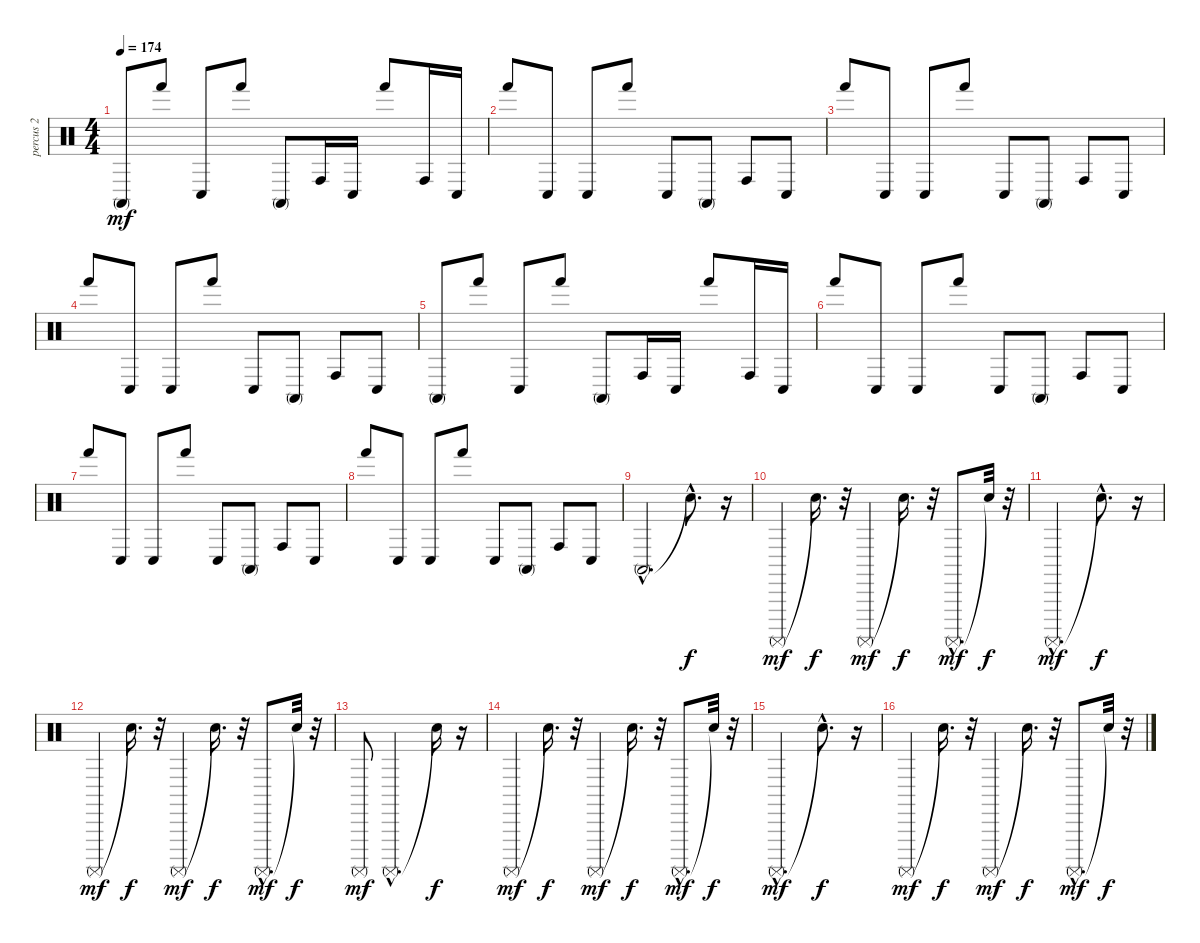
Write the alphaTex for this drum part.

\track ("percus 2" "percus 2") {instrument percussion}
\staff {score}
\articulation defaults
\ts (4 4)
\tempo 174
\clef neutral
\ks c "Conga high (mute)".8{dy mf} "Hand (hit)".8 "Conga low (hit)".8 "Hand (hit)".8 "Conga high (mute)".8 "Conga high (hit)".16 "Conga low (hit)".16 "Hand (hit)".8 "Conga high (hit)".16 "Conga low (hit)".16
|
"Hand (hit)".8 "Conga low (hit)".8 "Conga low (hit)".8 "Hand (hit)".8 "Conga low (hit)".8 "Conga high (mute)".8 "Conga high (hit)".8 "Conga low (hit)".8 |
"Hand (hit)".8 "Conga low (hit)".8 "Conga low (hit)".8 "Hand (hit)".8 "Conga low (hit)".8 "Conga high (mute)".8 "Conga high (hit)".8 "Conga low (hit)".8 |
"Hand (hit)".8 "Conga low (hit)".8 "Conga low (hit)".8 "Hand (hit)".8 "Conga low (hit)".8 "Conga high (mute)".8 "Conga high (hit)".8 "Conga low (hit)".8 |
"Conga high (mute)".8 "Hand (hit)".8 "Conga low (hit)".8 "Hand (hit)".8 "Conga high (mute)".8 "Conga high (hit)".16 "Conga low (hit)".16 "Hand (hit)".8 "Conga high (hit)".16 "Conga low (hit)".16 |
"Hand (hit)".8 "Conga low (hit)".8 "Conga low (hit)".8 "Hand (hit)".8 "Conga low (hit)".8 "Conga high (mute)".8 "Conga high (hit)".8 "Conga low (hit)".8 |
"Hand (hit)".8 "Conga low (hit)".8 "Conga low (hit)".8 "Hand (hit)".8 "Conga low (hit)".8 "Conga high (mute)".8 "Conga high (hit)".8 "Conga low (hit)".8 |
"Hand (hit)".8 "Conga low (hit)".8 "Conga low (hit)".8 "Hand (hit)".8 "Conga low (hit)".8 "Conga high (mute)".8 "Conga high (hit)".8 "Conga low (hit)".8 |
"Conga high (mute)"{hac}.2{d} "Snare (hit)"{hac t}.8{d dy f} r.16 |
"Surdo (mute)".4{dy mf} "Snare (hit)"{t}.16{d dy f} r.32 "Surdo (mute)".4{dy mf} "Snare (hit)"{t}.16{d dy f} r.32 "Surdo (mute)"{hac}.8{d dy mf} "Snare (hit)"{t}.32{dy f} r.32 |
"Surdo (mute)"{hac}.2{d dy mf} "Snare (hit)"{hac t}.8{d dy f} r.16 |
"Surdo (mute)".4{dy mf} "Snare (hit)"{t}.16{d dy f} r.32 "Surdo (mute)".4{dy mf} "Snare (hit)"{t}.16{d dy f} r.32 "Surdo (mute)"{hac}.8{d dy mf} "Snare (hit)"{t}.32{dy f} r.32 |
"Surdo (mute)".8{dy mf} "Surdo (mute)"{hac}.2{d} "Snare (hit)"{t}.16{dy f} r.16 |
"Surdo (mute)".4{dy mf} "Snare (hit)"{t}.16{d dy f} r.32 "Surdo (mute)".4{dy mf} "Snare (hit)"{t}.16{d dy f} r.32 "Surdo (mute)"{hac}.8{d dy mf} "Snare (hit)"{t}.32{dy f} r.32 |
"Surdo (mute)"{hac}.2{d dy mf} "Snare (hit)"{hac t}.8{d dy f} r.16 |
"Surdo (mute)".4{dy mf} "Snare (hit)"{t}.16{d dy f} r.32 "Surdo (mute)".4{dy mf} "Snare (hit)"{t}.16{d dy f} r.32 "Surdo (mute)"{hac}.8{d dy mf} "Snare (hit)"{t}.32{dy f} r.32
